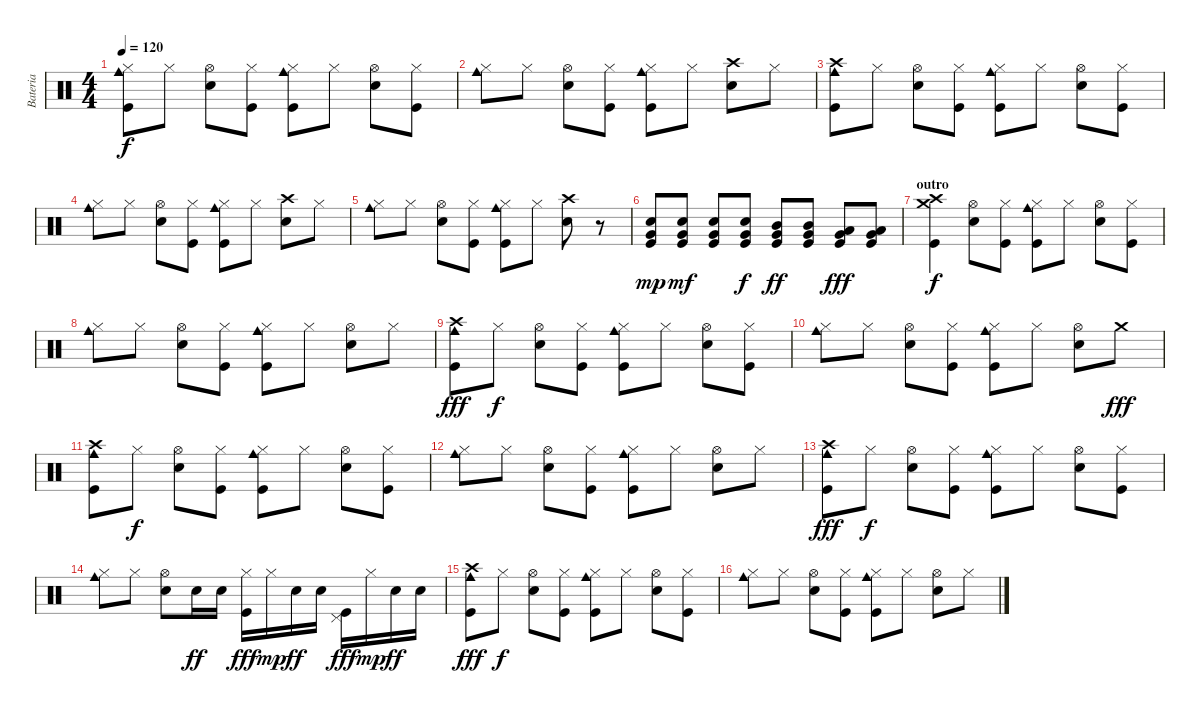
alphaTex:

\track ("Bateria" "Bateria") {instrument percussion}
\staff {score}
\articulation defaults
\ts (4 4)
\tempo 120
\clef neutral
\ks c
("Hi-Hat (closed)" "Cowbell medium (hit)" "Kick (hit)").8{dy f} "Hi-Hat (closed)".8 ("Hi-Hat (open)" "Electric Snare (hit)").8 ("Hi-Hat (closed)" "Kick (hit)").8 ("Hi-Hat (closed)" "Cowbell medium (hit)" "Kick (hit)").8 "Hi-Hat (closed)".8 ("Hi-Hat (open)" "Electric Snare (hit)").8 ("Hi-Hat (closed)" "Kick (hit)").8 |
("Hi-Hat (closed)" "Cowbell medium (hit)").8 "Hi-Hat (closed)".8 ("Hi-Hat (open)" "Electric Snare (hit)").8 ("Hi-Hat (closed)" "Kick (hit)").8 ("Hi-Hat (closed)" "Cowbell medium (hit)" "Kick (hit)").8 "Hi-Hat (closed)".8 ("Crash high (hit)" "Electric Snare (hit)").8 "Hi-Hat (closed)".8 |
("Crash high (hit)" "Cowbell medium (hit)" "Kick (hit)").8 "Hi-Hat (closed)".8 ("Hi-Hat (open)" "Electric Snare (hit)").8 ("Hi-Hat (closed)" "Kick (hit)").8 ("Hi-Hat (closed)" "Cowbell medium (hit)" "Kick (hit)").8 "Hi-Hat (closed)".8 ("Hi-Hat (open)" "Electric Snare (hit)").8 ("Hi-Hat (closed)" "Kick (hit)").8 |
("Hi-Hat (closed)" "Cowbell medium (hit)").8 "Hi-Hat (closed)".8 ("Hi-Hat (open)" "Electric Snare (hit)").8 ("Hi-Hat (closed)" "Kick (hit)").8 ("Hi-Hat (closed)" "Cowbell medium (hit)" "Kick (hit)").8 "Hi-Hat (closed)".8 ("Crash high (hit)" "Electric Snare (hit)").8 "Hi-Hat (closed)".8 |
("Hi-Hat (closed)" "Cowbell medium (hit)").8 "Hi-Hat (closed)".8 ("Hi-Hat (open)" "Electric Snare (hit)").8 ("Hi-Hat (closed)" "Kick (hit)").8 ("Hi-Hat (closed)" "Cowbell medium (hit)" "Kick (hit)").8 "Hi-Hat (closed)".8 ("Crash high (hit)" "Electric Snare (hit)").8 r.8 |
("Electric Snare (hit)" "Very Low Tom (hit)" "Kick (hit)").8{dy mp} ("Electric Snare (hit)" "Very Low Tom (hit)" "Kick (hit)").8{dy mf} ("Electric Snare (hit)" "Very Low Tom (hit)" "Kick (hit)").8 ("Electric Snare (hit)" "Very Low Tom (hit)" "Kick (hit)").8{dy f} ("Very Low Tom (hit)" "Mid Tom (hit)" "Kick (hit)").8{dy ff} ("Very Low Tom (hit)" "Mid Tom (hit)" "Kick (hit)").8 ("Very Low Tom (hit)" "Low Tom (hit)" "Kick (hit)").8{dy fff} ("Very Low Tom (hit)" "Low Tom (hit)" "Kick (hit)").8 |
\section ("" "outro")
("Crash medium (hit)" "Crash high (hit)" "Kick (hit)").4{dy f} ("Hi-Hat (open)" "Electric Snare (hit)").8 ("Hi-Hat (closed)" "Kick (hit)").8 ("Hi-Hat (closed)" "Cowbell medium (hit)" "Kick (hit)").8 "Hi-Hat (closed)".8 ("Hi-Hat (open)" "Electric Snare (hit)").8 ("Hi-Hat (closed)" "Kick (hit)").8 |
("Hi-Hat (closed)" "Cowbell medium (hit)").8 "Hi-Hat (closed)".8 ("Hi-Hat (open)" "Electric Snare (hit)").8 ("Hi-Hat (closed)" "Kick (hit)").8 ("Hi-Hat (closed)" "Cowbell medium (hit)" "Kick (hit)").8 "Hi-Hat (closed)".8 ("Hi-Hat (open)" "Electric Snare (hit)").8 "Hi-Hat (closed)".8 |
("Crash high (hit)" "Cowbell medium (hit)" "Kick (hit)").8{dy fff} "Hi-Hat (closed)".8{dy f} ("Hi-Hat (open)" "Electric Snare (hit)").8 ("Hi-Hat (closed)" "Kick (hit)").8 ("Hi-Hat (closed)" "Cowbell medium (hit)" "Kick (hit)").8 "Hi-Hat (closed)".8 ("Hi-Hat (open)" "Electric Snare (hit)").8 ("Hi-Hat (closed)" "Kick (hit)").8 |
("Hi-Hat (closed)" "Cowbell medium (hit)").8 "Hi-Hat (closed)".8 ("Hi-Hat (open)" "Electric Snare (hit)").8 ("Hi-Hat (closed)" "Kick (hit)").8 ("Hi-Hat (closed)" "Cowbell medium (hit)" "Kick (hit)").8 "Hi-Hat (closed)".8 ("Hi-Hat (open)" "Electric Snare (hit)").8 "Crash medium (hit)".8{dy fff} |
("Crash high (hit)" "Cowbell medium (hit)" "Kick (hit)").8 "Hi-Hat (closed)".8{dy f} ("Hi-Hat (open)" "Electric Snare (hit)").8 ("Hi-Hat (closed)" "Kick (hit)").8 ("Hi-Hat (closed)" "Cowbell medium (hit)" "Kick (hit)").8 "Hi-Hat (closed)".8 ("Hi-Hat (open)" "Electric Snare (hit)").8 ("Hi-Hat (closed)" "Kick (hit)").8 |
("Hi-Hat (closed)" "Cowbell medium (hit)").8 "Hi-Hat (closed)".8 ("Hi-Hat (open)" "Electric Snare (hit)").8 ("Hi-Hat (closed)" "Kick (hit)").8 ("Hi-Hat (closed)" "Cowbell medium (hit)" "Kick (hit)").8 "Hi-Hat (closed)".8 ("Hi-Hat (open)" "Electric Snare (hit)").8 "Hi-Hat (closed)".8 |
("Crash high (hit)" "Cowbell medium (hit)" "Kick (hit)").8{dy fff volume 9} "Hi-Hat (closed)".8{dy f} ("Hi-Hat (open)" "Electric Snare (hit)").8 ("Hi-Hat (closed)" "Kick (hit)").8 ("Hi-Hat (closed)" "Cowbell medium (hit)" "Kick (hit)").8 "Hi-Hat (closed)".8 ("Hi-Hat (open)" "Electric Snare (hit)").8 ("Hi-Hat (closed)" "Kick (hit)").8 |
("Hi-Hat (closed)" "Cowbell medium (hit)").8 "Hi-Hat (closed)".8 ("Hi-Hat (open)" "Electric Snare (hit)").8 "Electric Snare (hit)".16{dy ff} "Electric Snare (hit)".16 ("Hi-Hat (closed)" "Kick (hit)").16{dy fff} "Hi-Hat (closed)".16{dy mp} "Electric Snare (hit)".16{dy ff} "Electric Snare (hit)".16 ("Pedal Hi-Hat (hit)" "Kick (hit)").16{dy fff} "Hi-Hat (closed)".16{dy mp} "Electric Snare (hit)".16{dy ff} "Electric Snare (hit)".16 |
("Crash high (hit)" "Cowbell medium (hit)" "Kick (hit)").8{dy fff} "Hi-Hat (closed)".8{dy f} ("Hi-Hat (open)" "Electric Snare (hit)").8 ("Hi-Hat (closed)" "Kick (hit)").8 ("Hi-Hat (closed)" "Cowbell medium (hit)" "Kick (hit)").8 "Hi-Hat (closed)".8 ("Hi-Hat (open)" "Electric Snare (hit)").8 ("Hi-Hat (closed)" "Kick (hit)").8 |
("Hi-Hat (closed)" "Cowbell medium (hit)").8 "Hi-Hat (closed)".8 ("Hi-Hat (open)" "Electric Snare (hit)").8 ("Hi-Hat (closed)" "Kick (hit)").8 ("Hi-Hat (closed)" "Cowbell medium (hit)" "Kick (hit)").8 "Hi-Hat (closed)".8 ("Hi-Hat (open)" "Electric Snare (hit)").8 "Hi-Hat (closed)".8
